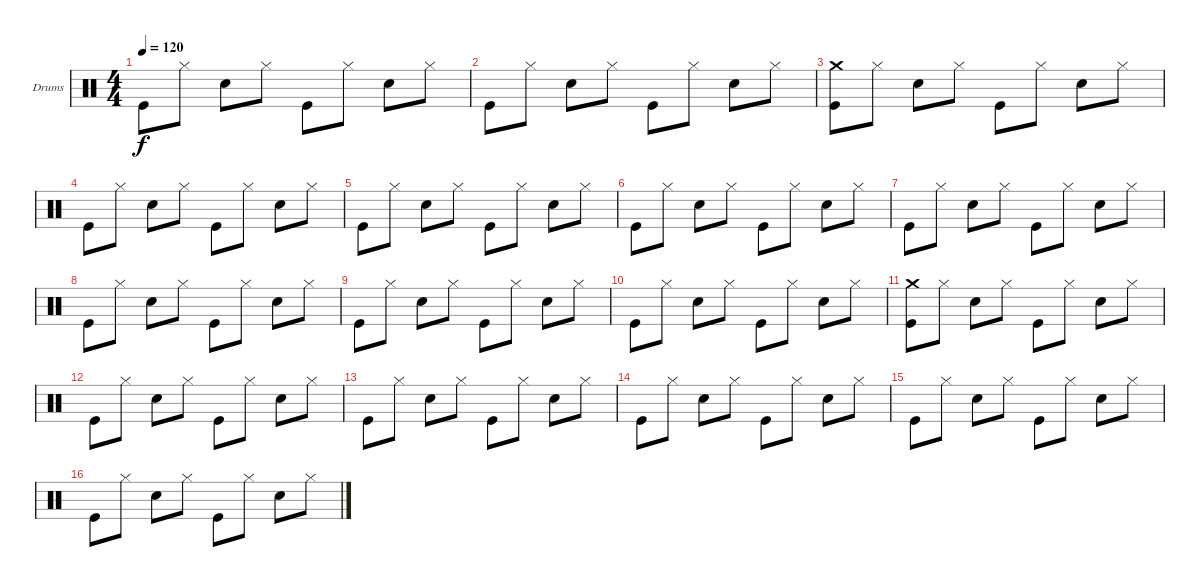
\defaultSystemsLayout 4
\bracketExtendMode groupsimilarinstruments
\firstSystemTrackNameOrientation horizontal
\otherSystemsTrackNameOrientation horizontal
\track ("Е. Кулаков" "Drums") {instrument percussion}
\staff {score}
\articulation defaults
\ts (4 4)
\tempo 120
\clef neutral
\ks c "Kick (hit)".8{dy f} "Hi-Hat (closed)".8 "Snare (hit) 2".8 "Hi-Hat (closed)".8 "Kick (hit)".8 "Hi-Hat (closed)".8 "Snare (hit) 2".8 "Hi-Hat (closed)".8
|
"Kick (hit)".8 "Hi-Hat (closed)".8 "Snare (hit) 2".8 "Hi-Hat (closed)".8 "Kick (hit)".8 "Hi-Hat (closed)".8 "Snare (hit) 2".8 "Hi-Hat (closed)".8 |
("Kick (hit)" "Crash medium (hit)").8 "Hi-Hat (closed)".8 "Snare (hit) 2".8 "Hi-Hat (closed)".8 "Kick (hit)".8 "Hi-Hat (closed)".8 "Snare (hit) 2".8 "Hi-Hat (closed)".8 |
"Kick (hit)".8 "Hi-Hat (closed)".8 "Snare (hit) 2".8 "Hi-Hat (closed)".8 "Kick (hit)".8 "Hi-Hat (closed)".8 "Snare (hit) 2".8 "Hi-Hat (closed)".8 |
"Kick (hit)".8 "Hi-Hat (closed)".8 "Snare (hit) 2".8 "Hi-Hat (closed)".8 "Kick (hit)".8 "Hi-Hat (closed)".8 "Snare (hit) 2".8 "Hi-Hat (closed)".8 |
"Kick (hit)".8 "Hi-Hat (closed)".8 "Snare (hit) 2".8 "Hi-Hat (closed)".8 "Kick (hit)".8 "Hi-Hat (closed)".8 "Snare (hit) 2".8 "Hi-Hat (closed)".8 |
"Kick (hit)".8 "Hi-Hat (closed)".8 "Snare (hit) 2".8 "Hi-Hat (closed)".8 "Kick (hit)".8 "Hi-Hat (closed)".8 "Snare (hit) 2".8 "Hi-Hat (closed)".8 |
"Kick (hit)".8 "Hi-Hat (closed)".8 "Snare (hit) 2".8 "Hi-Hat (closed)".8 "Kick (hit)".8 "Hi-Hat (closed)".8 "Snare (hit) 2".8 "Hi-Hat (closed)".8 |
"Kick (hit)".8 "Hi-Hat (closed)".8 "Snare (hit) 2".8 "Hi-Hat (closed)".8 "Kick (hit)".8 "Hi-Hat (closed)".8 "Snare (hit) 2".8 "Hi-Hat (closed)".8 |
"Kick (hit)".8 "Hi-Hat (closed)".8 "Snare (hit) 2".8 "Hi-Hat (closed)".8 "Kick (hit)".8 "Hi-Hat (closed)".8 "Snare (hit) 2".8 "Hi-Hat (closed)".8 |
("Kick (hit)" "Crash medium (hit)").8 "Hi-Hat (closed)".8 "Snare (hit) 2".8 "Hi-Hat (closed)".8 "Kick (hit)".8 "Hi-Hat (closed)".8 "Snare (hit) 2".8 "Hi-Hat (closed)".8 |
"Kick (hit)".8 "Hi-Hat (closed)".8 "Snare (hit) 2".8 "Hi-Hat (closed)".8 "Kick (hit)".8 "Hi-Hat (closed)".8 "Snare (hit) 2".8 "Hi-Hat (closed)".8 |
"Kick (hit)".8 "Hi-Hat (closed)".8 "Snare (hit) 2".8 "Hi-Hat (closed)".8 "Kick (hit)".8 "Hi-Hat (closed)".8 "Snare (hit) 2".8 "Hi-Hat (closed)".8 |
"Kick (hit)".8 "Hi-Hat (closed)".8 "Snare (hit) 2".8 "Hi-Hat (closed)".8 "Kick (hit)".8 "Hi-Hat (closed)".8 "Snare (hit) 2".8 "Hi-Hat (closed)".8 |
"Kick (hit)".8 "Hi-Hat (closed)".8 "Snare (hit) 2".8 "Hi-Hat (closed)".8 "Kick (hit)".8 "Hi-Hat (closed)".8 "Snare (hit) 2".8 "Hi-Hat (closed)".8 |
"Kick (hit)".8 "Hi-Hat (closed)".8 "Snare (hit) 2".8 "Hi-Hat (closed)".8 "Kick (hit)".8 "Hi-Hat (closed)".8 "Snare (hit) 2".8 "Hi-Hat (closed)".8
